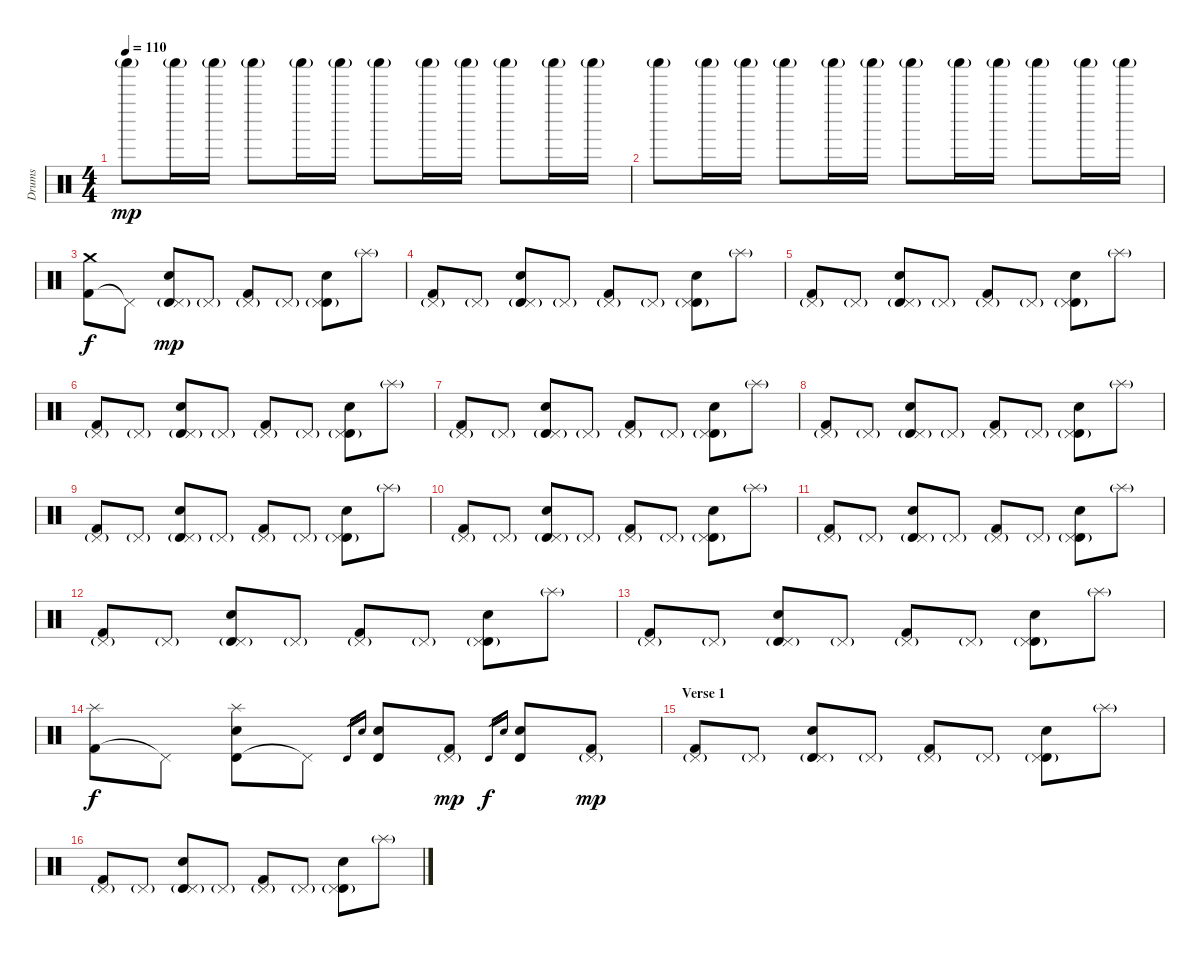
\track ("Drums" "Drums") {instrument percussion}
\staff {score}
\articulation defaults
\ts (4 4)
\tempo 110
\clef neutral
\ks c "Shaker (hit)"{g}.8{dy mp volume 9} "Shaker (hit)"{g}.16 "Shaker (hit)"{g}.16 "Shaker (hit)"{g}.8 "Shaker (hit)"{g}.16 "Shaker (hit)"{g}.16 "Shaker (hit)"{g}.8 "Shaker (hit)"{g}.16 "Shaker (hit)"{g}.16 "Shaker (hit)"{g}.8 "Shaker (hit)"{g}.16 "Shaker (hit)"{g}.16
|
"Shaker (hit)"{g}.8 "Shaker (hit)"{g}.16 "Shaker (hit)"{g}.16 "Shaker (hit)"{g}.8 "Shaker (hit)"{g}.16 "Shaker (hit)"{g}.16 "Shaker (hit)"{g}.8 "Shaker (hit)"{g}.16 "Shaker (hit)"{g}.16 "Shaker (hit)"{g}.8 "Shaker (hit)"{g}.16 "Shaker (hit)"{g}.16 |
("Kick (hit) 2" "Crash medium (hit)").8{dy f volume 13} "Pedal Hi-Hat (hit)"{t}.8 ("Timbale high (hit)" "Electric Snare (hit)" "Pedal Hi-Hat (hit)"{g}).8{dy mp} "Pedal Hi-Hat (hit)"{g}.8 ("Kick (hit) 2" "Pedal Hi-Hat (hit)"{g}).8 "Pedal Hi-Hat (hit)"{g}.8 ("Timbale high (hit)" "Electric Snare (hit)" "Pedal Hi-Hat (hit)"{g}).8 "Splash (hit)"{g}.8 |
("Kick (hit) 2" "Pedal Hi-Hat (hit)"{g}).8 "Pedal Hi-Hat (hit)"{g}.8 ("Timbale high (hit)" "Electric Snare (hit)" "Pedal Hi-Hat (hit)"{g}).8 "Pedal Hi-Hat (hit)"{g}.8 ("Kick (hit) 2" "Pedal Hi-Hat (hit)"{g}).8 "Pedal Hi-Hat (hit)"{g}.8 ("Timbale high (hit)" "Electric Snare (hit)" "Pedal Hi-Hat (hit)"{g}).8 "Splash (hit)"{g}.8 |
("Kick (hit) 2" "Pedal Hi-Hat (hit)"{g}).8 "Pedal Hi-Hat (hit)"{g}.8 ("Timbale high (hit)" "Electric Snare (hit)" "Pedal Hi-Hat (hit)"{g}).8 "Pedal Hi-Hat (hit)"{g}.8 ("Kick (hit) 2" "Pedal Hi-Hat (hit)"{g}).8 "Pedal Hi-Hat (hit)"{g}.8 ("Timbale high (hit)" "Electric Snare (hit)" "Pedal Hi-Hat (hit)"{g}).8 "Splash (hit)"{g}.8 |
("Kick (hit) 2" "Pedal Hi-Hat (hit)"{g}).8 "Pedal Hi-Hat (hit)"{g}.8 ("Timbale high (hit)" "Electric Snare (hit)" "Pedal Hi-Hat (hit)"{g}).8 "Pedal Hi-Hat (hit)"{g}.8 ("Kick (hit) 2" "Pedal Hi-Hat (hit)"{g}).8 "Pedal Hi-Hat (hit)"{g}.8 ("Timbale high (hit)" "Electric Snare (hit)" "Pedal Hi-Hat (hit)"{g}).8 "Splash (hit)"{g}.8 |
("Kick (hit) 2" "Pedal Hi-Hat (hit)"{g}).8 "Pedal Hi-Hat (hit)"{g}.8 ("Timbale high (hit)" "Electric Snare (hit)" "Pedal Hi-Hat (hit)"{g}).8 "Pedal Hi-Hat (hit)"{g}.8 ("Kick (hit) 2" "Pedal Hi-Hat (hit)"{g}).8 "Pedal Hi-Hat (hit)"{g}.8 ("Timbale high (hit)" "Electric Snare (hit)" "Pedal Hi-Hat (hit)"{g}).8 "Splash (hit)"{g}.8 |
("Kick (hit) 2" "Pedal Hi-Hat (hit)"{g}).8 "Pedal Hi-Hat (hit)"{g}.8 ("Timbale high (hit)" "Electric Snare (hit)" "Pedal Hi-Hat (hit)"{g}).8 "Pedal Hi-Hat (hit)"{g}.8 ("Kick (hit) 2" "Pedal Hi-Hat (hit)"{g}).8 "Pedal Hi-Hat (hit)"{g}.8 ("Timbale high (hit)" "Electric Snare (hit)" "Pedal Hi-Hat (hit)"{g}).8 "Splash (hit)"{g}.8 |
("Kick (hit) 2" "Pedal Hi-Hat (hit)"{g}).8 "Pedal Hi-Hat (hit)"{g}.8 ("Timbale high (hit)" "Electric Snare (hit)" "Pedal Hi-Hat (hit)"{g}).8 "Pedal Hi-Hat (hit)"{g}.8 ("Kick (hit) 2" "Pedal Hi-Hat (hit)"{g}).8 "Pedal Hi-Hat (hit)"{g}.8 ("Timbale high (hit)" "Electric Snare (hit)" "Pedal Hi-Hat (hit)"{g}).8 "Splash (hit)"{g}.8 |
("Kick (hit) 2" "Pedal Hi-Hat (hit)"{g}).8 "Pedal Hi-Hat (hit)"{g}.8 ("Timbale high (hit)" "Electric Snare (hit)" "Pedal Hi-Hat (hit)"{g}).8 "Pedal Hi-Hat (hit)"{g}.8 ("Kick (hit) 2" "Pedal Hi-Hat (hit)"{g}).8 "Pedal Hi-Hat (hit)"{g}.8 ("Timbale high (hit)" "Electric Snare (hit)" "Pedal Hi-Hat (hit)"{g}).8 "Splash (hit)"{g}.8 |
("Kick (hit) 2" "Pedal Hi-Hat (hit)"{g}).8 "Pedal Hi-Hat (hit)"{g}.8 ("Timbale high (hit)" "Electric Snare (hit)" "Pedal Hi-Hat (hit)"{g}).8 "Pedal Hi-Hat (hit)"{g}.8 ("Kick (hit) 2" "Pedal Hi-Hat (hit)"{g}).8 "Pedal Hi-Hat (hit)"{g}.8 ("Timbale high (hit)" "Electric Snare (hit)" "Pedal Hi-Hat (hit)"{g}).8 "Splash (hit)"{g}.8 |
("Kick (hit) 2" "Pedal Hi-Hat (hit)"{g}).8 "Pedal Hi-Hat (hit)"{g}.8 ("Timbale high (hit)" "Electric Snare (hit)" "Pedal Hi-Hat (hit)"{g}).8 "Pedal Hi-Hat (hit)"{g}.8 ("Kick (hit) 2" "Pedal Hi-Hat (hit)"{g}).8 "Pedal Hi-Hat (hit)"{g}.8 ("Timbale high (hit)" "Electric Snare (hit)" "Pedal Hi-Hat (hit)"{g}).8 "Splash (hit)"{g}.8 |
("Kick (hit) 2" "Pedal Hi-Hat (hit)"{g}).8 "Pedal Hi-Hat (hit)"{g}.8 ("Timbale high (hit)" "Electric Snare (hit)" "Pedal Hi-Hat (hit)"{g}).8 "Pedal Hi-Hat (hit)"{g}.8 ("Kick (hit) 2" "Pedal Hi-Hat (hit)"{g}).8 "Pedal Hi-Hat (hit)"{g}.8 ("Timbale high (hit)" "Electric Snare (hit)" "Pedal Hi-Hat (hit)"{g}).8 "Splash (hit)"{g}.8 |
("Kick (hit) 2" "Splash (hit)").8{dy f} "Pedal Hi-Hat (hit)"{t}.8 ("Timbale high (hit)" "Electric Snare (hit)" "Splash (hit)").8 "Pedal Hi-Hat (hit)"{t}.8 "Timbale high (hit)".16{gr} "Electric Snare (hit)".16{gr} ("Timbale high (hit)" "Electric Snare (hit)").8 ("Kick (hit) 2" "Pedal Hi-Hat (hit)"{g}).8{dy mp} "Timbale high (hit)".16{gr dy f} "Electric Snare (hit)".16{gr} ("Timbale high (hit)" "Electric Snare (hit)").8 ("Kick (hit) 2" "Pedal Hi-Hat (hit)"{g}).8{dy mp} |
\section ("" "Verse 1")
("Kick (hit) 2" "Pedal Hi-Hat (hit)"{g}).8 "Pedal Hi-Hat (hit)"{g}.8 ("Timbale high (hit)" "Electric Snare (hit)" "Pedal Hi-Hat (hit)"{g}).8 "Pedal Hi-Hat (hit)"{g}.8 ("Kick (hit) 2" "Pedal Hi-Hat (hit)"{g}).8 "Pedal Hi-Hat (hit)"{g}.8 ("Timbale high (hit)" "Electric Snare (hit)" "Pedal Hi-Hat (hit)"{g}).8 "Splash (hit)"{g}.8 |
("Kick (hit) 2" "Pedal Hi-Hat (hit)"{g}).8 "Pedal Hi-Hat (hit)"{g}.8 ("Timbale high (hit)" "Electric Snare (hit)" "Pedal Hi-Hat (hit)"{g}).8 "Pedal Hi-Hat (hit)"{g}.8 ("Kick (hit) 2" "Pedal Hi-Hat (hit)"{g}).8 "Pedal Hi-Hat (hit)"{g}.8 ("Timbale high (hit)" "Electric Snare (hit)" "Pedal Hi-Hat (hit)"{g}).8 "Splash (hit)"{g}.8
